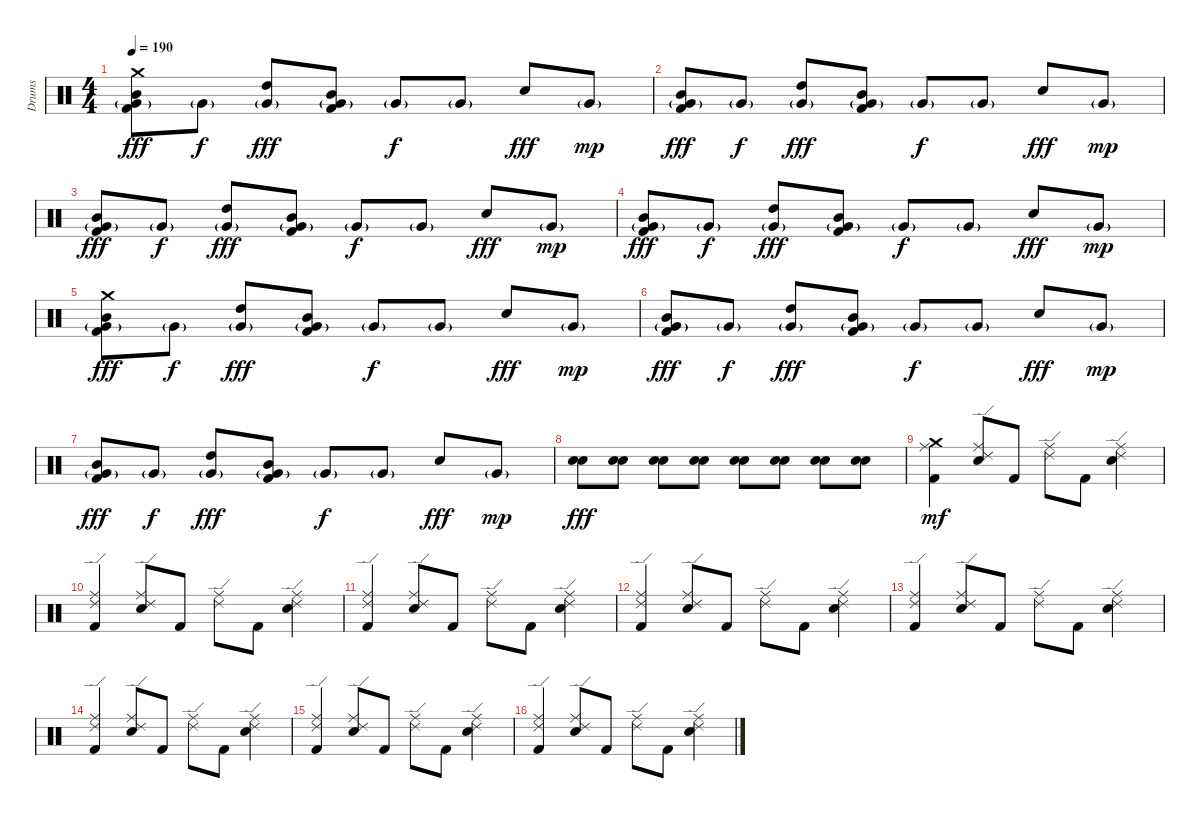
\track ("Drums" "Drums") {instrument percussion}
\staff {score}
\articulation defaults
\ts (4 4)
\tempo 190
\clef neutral
\ks c
("Crash medium (hit)" "Mid Tom (hit)" "Very Low Tom (hit)"{g} "Kick (hit) 2").8{dy fff} "Very Low Tom (hit)"{g}.8{dy f} ("High Tom (hit)" "Very Low Tom (hit)"{g}).8{dy fff} ("Mid Tom (hit)" "Very Low Tom (hit)"{g} "Kick (hit) 2").8 "Very Low Tom (hit)"{g}.8{dy f} "Very Low Tom (hit)"{g}.8 "Electric Snare (hit)".8{dy fff} "Very Low Tom (hit)"{g}.8{dy mp} |
("Mid Tom (hit)" "Very Low Tom (hit)"{g} "Kick (hit) 2").8{dy fff} "Very Low Tom (hit)"{g}.8{dy f} ("High Tom (hit)" "Very Low Tom (hit)"{g}).8{dy fff} ("Mid Tom (hit)" "Very Low Tom (hit)"{g} "Kick (hit) 2").8 "Very Low Tom (hit)"{g}.8{dy f} "Very Low Tom (hit)"{g}.8 "Electric Snare (hit)".8{dy fff} "Very Low Tom (hit)"{g}.8{dy mp} |
("Mid Tom (hit)" "Very Low Tom (hit)"{g} "Kick (hit) 2").8{dy fff} "Very Low Tom (hit)"{g}.8{dy f} ("High Tom (hit)" "Very Low Tom (hit)"{g}).8{dy fff} ("Mid Tom (hit)" "Very Low Tom (hit)"{g} "Kick (hit) 2").8 "Very Low Tom (hit)"{g}.8{dy f} "Very Low Tom (hit)"{g}.8 "Electric Snare (hit)".8{dy fff} "Very Low Tom (hit)"{g}.8{dy mp} |
("Mid Tom (hit)" "Very Low Tom (hit)"{g} "Kick (hit) 2").8{dy fff} "Very Low Tom (hit)"{g}.8{dy f} ("High Tom (hit)" "Very Low Tom (hit)"{g}).8{dy fff} ("Mid Tom (hit)" "Very Low Tom (hit)"{g} "Kick (hit) 2").8 "Very Low Tom (hit)"{g}.8{dy f} "Very Low Tom (hit)"{g}.8 "Electric Snare (hit)".8{dy fff} "Very Low Tom (hit)"{g}.8{dy mp} |
("Crash medium (hit)" "Mid Tom (hit)" "Very Low Tom (hit)"{g} "Kick (hit) 2").8{dy fff} "Very Low Tom (hit)"{g}.8{dy f} ("High Tom (hit)" "Very Low Tom (hit)"{g}).8{dy fff} ("Mid Tom (hit)" "Very Low Tom (hit)"{g} "Kick (hit) 2").8 "Very Low Tom (hit)"{g}.8{dy f} "Very Low Tom (hit)"{g}.8 "Electric Snare (hit)".8{dy fff} "Very Low Tom (hit)"{g}.8{dy mp} |
("Mid Tom (hit)" "Very Low Tom (hit)"{g} "Kick (hit) 2").8{dy fff} "Very Low Tom (hit)"{g}.8{dy f} ("High Tom (hit)" "Very Low Tom (hit)"{g}).8{dy fff} ("Mid Tom (hit)" "Very Low Tom (hit)"{g} "Kick (hit) 2").8 "Very Low Tom (hit)"{g}.8{dy f} "Very Low Tom (hit)"{g}.8 "Electric Snare (hit)".8{dy fff} "Very Low Tom (hit)"{g}.8{dy mp} |
("Mid Tom (hit)" "Very Low Tom (hit)"{g} "Kick (hit) 2").8{dy fff} "Very Low Tom (hit)"{g}.8{dy f} ("High Tom (hit)" "Very Low Tom (hit)"{g}).8{dy fff} ("Mid Tom (hit)" "Very Low Tom (hit)"{g} "Kick (hit) 2").8 "Very Low Tom (hit)"{g}.8{dy f} "Very Low Tom (hit)"{g}.8 "Electric Snare (hit)".8{dy fff} "Very Low Tom (hit)"{g}.8{dy mp volume 5} |
("Snare (hit) 2" "Electric Snare (hit)").8{dy fff volume 14} ("Snare (hit) 2" "Electric Snare (hit)").8 ("Snare (hit) 2" "Electric Snare (hit)").8 ("Snare (hit) 2" "Electric Snare (hit)").8 ("Snare (hit) 2" "Electric Snare (hit)").8 ("Snare (hit) 2" "Electric Snare (hit)").8 ("Snare (hit) 2" "Electric Snare (hit)").8 ("Snare (hit) 2" "Electric Snare (hit)").8 |
("Crash medium (hit)" "Ride (middle)" "Kick (hit) 2").4{dy mf} ("Ride (edge) 2" "Ride (middle)" "Snare (hit) 2").8 "Kick (hit) 2".8 ("Ride (edge) 2" "Ride (middle)").8 "Kick (hit) 2".8 ("Ride (edge) 2" "Ride (middle)" "Snare (hit) 2").4 |
("Ride (edge) 2" "Ride (middle)" "Kick (hit) 2").4 ("Ride (edge) 2" "Ride (middle)" "Snare (hit) 2").8 "Kick (hit) 2".8 ("Ride (edge) 2" "Ride (middle)").8 "Kick (hit) 2".8 ("Ride (edge) 2" "Ride (middle)" "Snare (hit) 2").4 |
("Ride (edge) 2" "Ride (middle)" "Kick (hit) 2").4 ("Ride (edge) 2" "Ride (middle)" "Snare (hit) 2").8 "Kick (hit) 2".8 ("Ride (edge) 2" "Ride (middle)").8 "Kick (hit) 2".8 ("Ride (edge) 2" "Ride (middle)" "Snare (hit) 2").4 |
("Ride (edge) 2" "Ride (middle)" "Kick (hit) 2").4 ("Ride (edge) 2" "Ride (middle)" "Snare (hit) 2").8 "Kick (hit) 2".8 ("Ride (edge) 2" "Ride (middle)").8 "Kick (hit) 2".8 ("Ride (edge) 2" "Ride (middle)" "Snare (hit) 2").4 |
("Ride (edge) 2" "Ride (middle)" "Kick (hit) 2").4 ("Ride (edge) 2" "Ride (middle)" "Snare (hit) 2").8 "Kick (hit) 2".8 ("Ride (edge) 2" "Ride (middle)").8 "Kick (hit) 2".8 ("Ride (edge) 2" "Ride (middle)" "Snare (hit) 2").4 |
("Ride (edge) 2" "Ride (middle)" "Kick (hit) 2").4 ("Ride (edge) 2" "Ride (middle)" "Snare (hit) 2").8 "Kick (hit) 2".8 ("Ride (edge) 2" "Ride (middle)").8 "Kick (hit) 2".8 ("Ride (edge) 2" "Ride (middle)" "Snare (hit) 2").4 |
("Ride (edge) 2" "Ride (middle)" "Kick (hit) 2").4 ("Ride (edge) 2" "Ride (middle)" "Snare (hit) 2").8 "Kick (hit) 2".8 ("Ride (edge) 2" "Ride (middle)").8 "Kick (hit) 2".8 ("Ride (edge) 2" "Ride (middle)" "Snare (hit) 2").4 |
("Ride (edge) 2" "Ride (middle)" "Kick (hit) 2").4 ("Ride (edge) 2" "Ride (middle)" "Snare (hit) 2").8 "Kick (hit) 2".8 ("Ride (edge) 2" "Ride (middle)").8 "Kick (hit) 2".8 ("Ride (edge) 2" "Ride (middle)" "Snare (hit) 2").4
